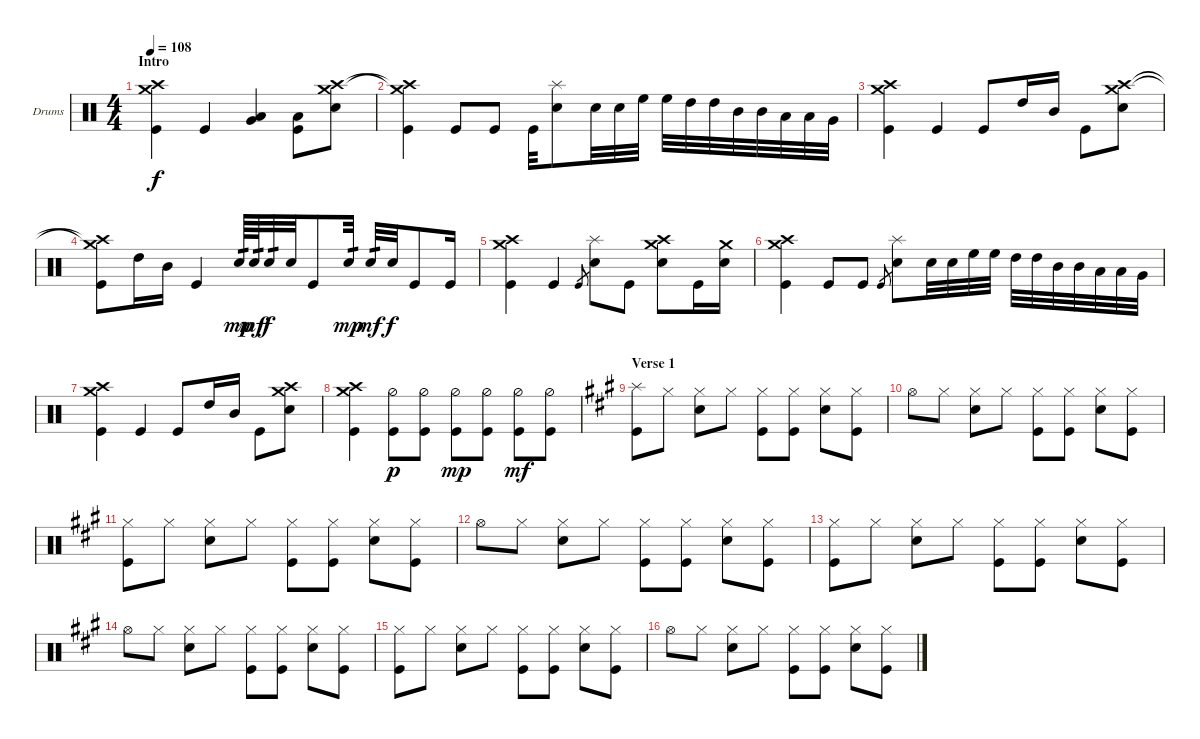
\defaultSystemsLayout 4
\bracketExtendMode groupsimilarinstruments
\firstSystemTrackNameOrientation horizontal
\otherSystemsTrackNameOrientation horizontal
\track ("Drums" "Drums") {instrument percussion}
\staff {score}
\articulation defaults
\ts (4 4)
\section ("" "Intro")
\tempo 108
\clef neutral
\scale
0.474178
\ks c
("Kick (hit)" "Crash medium (hit)" "Crash high (hit)").4{dy f} "Kick (hit)".4 ("Very Low Tom (hit)" "Low Tom (hit)").4 ("Kick (hit)" "Low Tom (hit)").8 ("Crash medium (hit)" "Crash high (hit)" "Snare (hit) 2").8 |
\scale
0.262911 ("Crash high (hit)"{t} "Crash medium (hit)"{t} "Kick (hit)").4 "Kick (hit)".8 "Kick (hit)".8 "Kick (hit)".32 ("Snare (hit) 2" "Splash (hit)").8 "Snare (hit) 2".32 "Snare (hit) 2".32 "High Floor Tom (hit)".32 "High Floor Tom (hit)".32 "High Tom (hit)".32 "High Tom (hit)".32 "Mid Tom (hit)".32 "Mid Tom (hit)".32 "Low Tom (hit)".32 "Low Tom (hit)".32 "Very Low Tom (hit)".32 |
\scale
0.262911 ("Kick (hit)" "Crash medium (hit)" "Crash high (hit)").4 "Kick (hit)".4 "Kick (hit)".8 "High Tom (hit)".16 "Mid Tom (hit)".16 "Kick (hit)".8 ("Crash medium (hit)" "Crash high (hit)" "Snare (hit) 2").8 |
\scale
0.333333 ("Crash high (hit)"{t} "Crash medium (hit)"{t} "Kick (hit)").8 "High Tom (hit)".16 "Mid Tom (hit)".16 "Kick (hit)".4 "Snare (hit) 2".64{tp 1 dy mp} "Snare (hit) 2".64{tp 1 dy mf} "Snare (hit) 2".32{tp 1 dy f} "Snare (hit) 2".32 "Kick (hit)".8 "Snare (hit) 2".32{tp 1 dy mp} "Snare (hit) 2".32{tp 1 dy mf} "Snare (hit) 2".32{dy f} "Kick (hit)".8 "Kick (hit)".16 |
\scale
0.333333 ("Kick (hit)" "Crash medium (hit)" "Crash high (hit)").4 "Kick (hit)".4 "Kick (hit)".8{gr} ("Snare (hit) 2" "Splash (hit)").8 "Kick (hit)".8 ("Crash medium (hit)" "Crash high (hit)" "Snare (hit) 2").8 "Kick (hit)".16 ("Snare (hit) 2" "Crash medium (hit)").16 |
\scale
0.333333 ("Crash high (hit)" "Crash medium (hit)" "Kick (hit)").4 "Kick (hit)".8 "Kick (hit)".8 "Kick (hit)".8{gr} ("Snare (hit) 2" "Splash (hit)").8 "Snare (hit) 2".32 "Snare (hit) 2".32 "High Floor Tom (hit)".32 "High Floor Tom (hit)".32 "High Tom (hit)".32 "High Tom (hit)".32 "Mid Tom (hit)".32 "Mid Tom (hit)".32 "Low Tom (hit)".32 "Low Tom (hit)".32 "Very Low Tom (hit)".32 |
("Kick (hit)" "Crash medium (hit)" "Crash high (hit)").4 "Kick (hit)".4 "Kick (hit)".8 "High Tom (hit)".16 "Mid Tom (hit)".16 "Kick (hit)".8 ("Crash medium (hit)" "Crash high (hit)" "Snare (hit) 2").8 |
("Crash high (hit)" "Crash medium (hit)" "Kick (hit)").4 ("Kick (hit)" "Hi-Hat (half)").8{dy p} ("Kick (hit)" "Hi-Hat (half)").8 ("Kick (hit)" "Hi-Hat (half)").8{dy mp} ("Kick (hit)" "Hi-Hat (half)").8 ("Kick (hit)" "Hi-Hat (half)").8{dy mf} ("Kick (hit)" "Hi-Hat (half)").8 |
\section ("" "Verse 1")
\ks a
("Kick (hit)" "Splash (hit)").8 "Hi-Hat (closed)".8 ("Snare (hit) 2" "Hi-Hat (closed)").8 "Hi-Hat (closed)".8 ("Kick (hit)" "Hi-Hat (closed)").8 ("Kick (hit)" "Hi-Hat (closed)").8 ("Snare (hit) 2" "Hi-Hat (closed)").8 ("Kick (hit)" "Hi-Hat (closed)").8 |
"Hi-Hat (open)".8 "Hi-Hat (closed)".8 ("Snare (hit) 2" "Hi-Hat (closed)").8 "Hi-Hat (closed)".8 ("Kick (hit)" "Hi-Hat (closed)").8 ("Kick (hit)" "Hi-Hat (closed)").8 ("Snare (hit) 2" "Hi-Hat (closed)").8 ("Kick (hit)" "Hi-Hat (closed)").8 |
("Kick (hit)" "Hi-Hat (closed)").8 "Hi-Hat (closed)".8 ("Snare (hit) 2" "Hi-Hat (closed)").8 "Hi-Hat (closed)".8 ("Kick (hit)" "Hi-Hat (closed)").8 ("Kick (hit)" "Hi-Hat (closed)").8 ("Snare (hit) 2" "Hi-Hat (closed)").8 ("Kick (hit)" "Hi-Hat (closed)").8 |
"Hi-Hat (open)".8 "Hi-Hat (closed)".8 ("Snare (hit) 2" "Hi-Hat (closed)").8 "Hi-Hat (closed)".8 ("Kick (hit)" "Hi-Hat (closed)").8 ("Kick (hit)" "Hi-Hat (closed)").8 ("Snare (hit) 2" "Hi-Hat (closed)").8 ("Kick (hit)" "Hi-Hat (closed)").8 |
("Kick (hit)" "Hi-Hat (closed)").8 "Hi-Hat (closed)".8 ("Snare (hit) 2" "Hi-Hat (closed)").8 "Hi-Hat (closed)".8 ("Kick (hit)" "Hi-Hat (closed)").8 ("Kick (hit)" "Hi-Hat (closed)").8 ("Snare (hit) 2" "Hi-Hat (closed)").8 ("Kick (hit)" "Hi-Hat (closed)").8 |
"Hi-Hat (open)".8 "Hi-Hat (closed)".8 ("Snare (hit) 2" "Hi-Hat (closed)").8 "Hi-Hat (closed)".8 ("Kick (hit)" "Hi-Hat (closed)").8 ("Kick (hit)" "Hi-Hat (closed)").8 ("Snare (hit) 2" "Hi-Hat (closed)").8 ("Kick (hit)" "Hi-Hat (closed)").8 |
("Kick (hit)" "Hi-Hat (closed)").8 "Hi-Hat (closed)".8 ("Snare (hit) 2" "Hi-Hat (closed)").8 "Hi-Hat (closed)".8 ("Kick (hit)" "Hi-Hat (closed)").8 ("Kick (hit)" "Hi-Hat (closed)").8 ("Snare (hit) 2" "Hi-Hat (closed)").8 ("Kick (hit)" "Hi-Hat (closed)").8 |
"Hi-Hat (open)".8 "Hi-Hat (closed)".8 ("Snare (hit) 2" "Hi-Hat (closed)").8 "Hi-Hat (closed)".8 ("Kick (hit)" "Hi-Hat (closed)").8 ("Kick (hit)" "Hi-Hat (closed)").8 ("Snare (hit) 2" "Hi-Hat (closed)").8 ("Kick (hit)" "Hi-Hat (closed)").8
